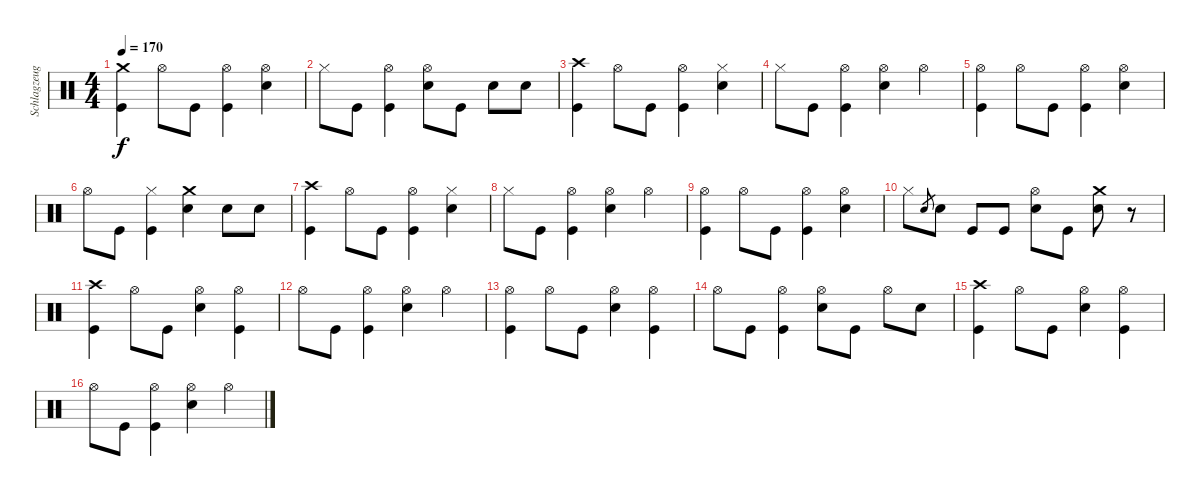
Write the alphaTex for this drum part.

\track ("Schlagzeug" "Schlagzeug") {instrument percussion}
\staff {score}
\articulation defaults
\ts (4 4)
\tempo 170
\clef neutral
\ks c
("Crash medium (hit)" "Kick (hit)").4{dy f} "Hi-Hat (open)".8 "Kick (hit)".8 ("Hi-Hat (open)" "Kick (hit)").4 ("Hi-Hat (open)" "Electric Snare (hit)").4 |
"Hi-Hat (closed)".8 "Kick (hit)".8 ("Hi-Hat (open)" "Kick (hit)").4 ("Hi-Hat (open)" "Electric Snare (hit)").8 "Kick (hit)".8 "Electric Snare (hit)".8 "Electric Snare (hit)".8 |
("Crash high (hit)" "Kick (hit)").4 "Hi-Hat (open)".8 "Kick (hit)".8 ("Hi-Hat (open)" "Kick (hit)").4 ("Hi-Hat (closed)" "Electric Snare (hit)").4 |
"Hi-Hat (closed)".8 "Kick (hit)".8 ("Hi-Hat (open)" "Kick (hit)").4 ("Hi-Hat (open)" "Electric Snare (hit)").4 "Hi-Hat (open)".4 |
("Hi-Hat (open)" "Kick (hit)").4 "Hi-Hat (open)".8 "Kick (hit)".8 ("Hi-Hat (open)" "Kick (hit)").4 ("Hi-Hat (open)" "Electric Snare (hit)").4 |
"Hi-Hat (open)".8 "Kick (hit)".8 ("Hi-Hat (closed)" "Kick (hit)").4 ("Crash medium (hit)" "Electric Snare (hit)").4 "Electric Snare (hit)".8 "Electric Snare (hit)".8 |
("Crash high (hit)" "Kick (hit)").4 "Hi-Hat (open)".8 "Kick (hit)".8 ("Hi-Hat (open)" "Kick (hit)").4 ("Hi-Hat (closed)" "Electric Snare (hit)").4 |
"Hi-Hat (closed)".8 "Kick (hit)".8 ("Hi-Hat (open)" "Kick (hit)").4 ("Hi-Hat (open)" "Electric Snare (hit)").4 "Hi-Hat (open)".4 |
("Hi-Hat (open)" "Kick (hit)").4 "Hi-Hat (open)".8 "Kick (hit)".8 ("Hi-Hat (open)" "Kick (hit)").4 ("Hi-Hat (open)" "Electric Snare (hit)").4 |
"Hi-Hat (closed)".8 "Electric Snare (hit)".8{gr} "Electric Snare (hit)".8 "Kick (hit)".8 "Kick (hit)".8 ("Hi-Hat (open)" "Electric Snare (hit)").8 "Kick (hit)".8 ("Crash medium (hit)" "Electric Snare (hit)").8 r.8 |
("Crash high (hit)" "Kick (hit)").4 "Hi-Hat (open)".8 "Kick (hit)".8 ("Hi-Hat (open)" "Electric Snare (hit)").4 ("Hi-Hat (open)" "Kick (hit)").4 |
"Hi-Hat (open)".8 "Kick (hit)".8 ("Hi-Hat (open)" "Kick (hit)").4 ("Hi-Hat (open)" "Electric Snare (hit)").4 "Hi-Hat (open)".4 |
("Hi-Hat (open)" "Kick (hit)").4 "Hi-Hat (open)".8 "Kick (hit)".8 ("Hi-Hat (open)" "Electric Snare (hit)").4 ("Hi-Hat (open)" "Kick (hit)").4 |
"Hi-Hat (open)".8 "Kick (hit)".8 ("Hi-Hat (open)" "Kick (hit)").4 ("Hi-Hat (open)" "Electric Snare (hit)").8 "Kick (hit)".8 "Hi-Hat (open)".8 "Electric Snare (hit)".8 |
("Crash high (hit)" "Kick (hit)").4 "Hi-Hat (open)".8 "Kick (hit)".8 ("Hi-Hat (open)" "Electric Snare (hit)").4 ("Hi-Hat (open)" "Kick (hit)").4 |
"Hi-Hat (open)".8 "Kick (hit)".8 ("Hi-Hat (open)" "Kick (hit)").4 ("Hi-Hat (open)" "Electric Snare (hit)").4 "Hi-Hat (open)".4
